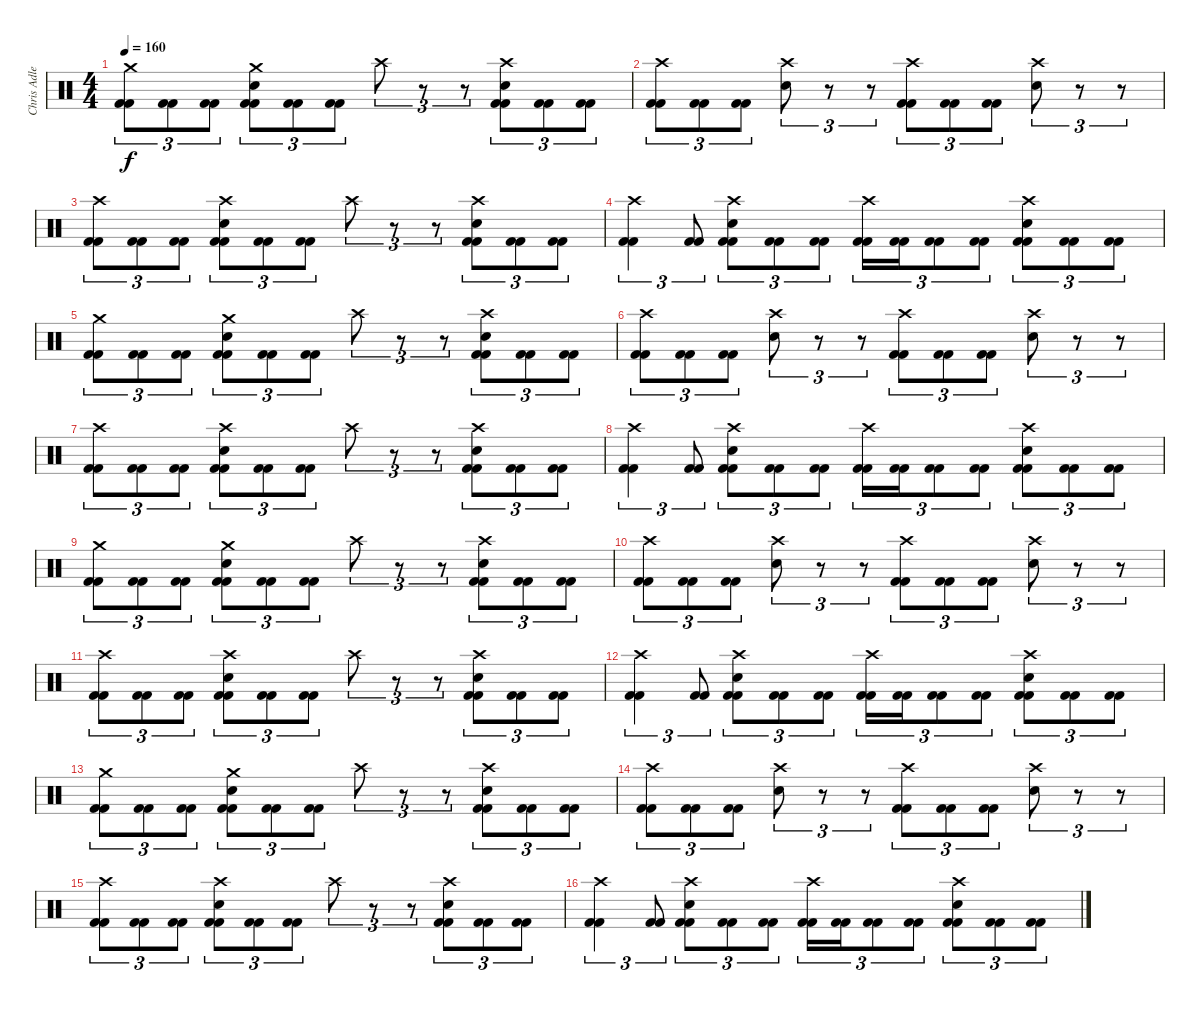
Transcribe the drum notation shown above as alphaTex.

\track ("Chris Adler" "Chris Adle") {instrument percussion}
\staff {score}
\articulation defaults
\ts (4 4)
\tempo 160
\clef neutral
\ks c
("Crash medium (hit)" "Kick (hit) 2" "Kick (hit) 2").8{tu (3 2) dy f} ("Kick (hit) 2" "Kick (hit) 2").8{tu (3 2)} ("Kick (hit) 2" "Kick (hit) 2").8{tu (3 2)} ("Crash medium (hit)" "Kick (hit) 2" "Snare (hit) 2" "Kick (hit) 2").8{tu (3 2)} ("Kick (hit) 2" "Kick (hit) 2").8{tu (3 2)} ("Kick (hit) 2" "Kick (hit) 2").8{tu (3 2)} "Crash high (hit)".8{tu (3 2)} r.8{tu (3 2)} r.8{tu (3 2)} ("Crash high (hit)" "Kick (hit) 2" "Snare (hit) 2" "Kick (hit) 2").8{tu (3 2)} ("Kick (hit) 2" "Kick (hit) 2").8{tu (3 2)} ("Kick (hit) 2" "Kick (hit) 2").8{tu (3 2)} |
("Crash high (hit)" "Kick (hit) 2" "Kick (hit) 2").8{tu (3 2)} ("Kick (hit) 2" "Kick (hit) 2").8{tu (3 2)} ("Kick (hit) 2" "Kick (hit) 2").8{tu (3 2)} ("Crash high (hit)" "Snare (hit) 2").8{tu (3 2)} r.8{tu (3 2)} r.8{tu (3 2)} ("Crash high (hit)" "Kick (hit) 2" "Kick (hit) 2").8{tu (3 2)} ("Kick (hit) 2" "Kick (hit) 2").8{tu (3 2)} ("Kick (hit) 2" "Kick (hit) 2").8{tu (3 2)} ("Crash high (hit)" "Snare (hit) 2").8{tu (3 2)} r.8{tu (3 2)} r.8{tu (3 2)} |
("Crash high (hit)" "Kick (hit) 2" "Kick (hit) 2").8{tu (3 2)} ("Kick (hit) 2" "Kick (hit) 2").8{tu (3 2)} ("Kick (hit) 2" "Kick (hit) 2").8{tu (3 2)} ("Crash high (hit)" "Kick (hit) 2" "Snare (hit) 2" "Kick (hit) 2").8{tu (3 2)} ("Kick (hit) 2" "Kick (hit) 2").8{tu (3 2)} ("Kick (hit) 2" "Kick (hit) 2").8{tu (3 2)} "Crash high (hit)".8{tu (3 2)} r.8{tu (3 2)} r.8{tu (3 2)} ("Crash high (hit)" "Kick (hit) 2" "Snare (hit) 2" "Kick (hit) 2").8{tu (3 2)} ("Kick (hit) 2" "Kick (hit) 2").8{tu (3 2)} ("Kick (hit) 2" "Kick (hit) 2").8{tu (3 2)} |
("Crash high (hit)" "Kick (hit) 2" "Kick (hit) 2").4{tu (3 2)} ("Kick (hit) 2" "Kick (hit) 2").8{tu (3 2)} ("Crash high (hit)" "Kick (hit) 2" "Snare (hit) 2" "Kick (hit) 2").8{tu (3 2)} ("Kick (hit) 2" "Kick (hit) 2").8{tu (3 2)} ("Kick (hit) 2" "Kick (hit) 2").8{tu (3 2)} ("Crash high (hit)" "Kick (hit) 2" "Kick (hit) 2").16{tu (3 2)} ("Kick (hit) 2" "Kick (hit) 2").16{tu (3 2)} ("Kick (hit) 2" "Kick (hit) 2").8{tu (3 2)} ("Kick (hit) 2" "Kick (hit) 2").8{tu (3 2)} ("Crash high (hit)" "Kick (hit) 2" "Snare (hit) 2" "Kick (hit) 2").8{tu (3 2)} ("Kick (hit) 2" "Kick (hit) 2").8{tu (3 2)} ("Kick (hit) 2" "Kick (hit) 2").8{tu (3 2)} |
("Crash medium (hit)" "Kick (hit) 2" "Kick (hit) 2").8{tu (3 2)} ("Kick (hit) 2" "Kick (hit) 2").8{tu (3 2)} ("Kick (hit) 2" "Kick (hit) 2").8{tu (3 2)} ("Crash medium (hit)" "Kick (hit) 2" "Snare (hit) 2" "Kick (hit) 2").8{tu (3 2)} ("Kick (hit) 2" "Kick (hit) 2").8{tu (3 2)} ("Kick (hit) 2" "Kick (hit) 2").8{tu (3 2)} "Crash high (hit)".8{tu (3 2)} r.8{tu (3 2)} r.8{tu (3 2)} ("Crash high (hit)" "Kick (hit) 2" "Snare (hit) 2" "Kick (hit) 2").8{tu (3 2)} ("Kick (hit) 2" "Kick (hit) 2").8{tu (3 2)} ("Kick (hit) 2" "Kick (hit) 2").8{tu (3 2)} |
("Crash high (hit)" "Kick (hit) 2" "Kick (hit) 2").8{tu (3 2)} ("Kick (hit) 2" "Kick (hit) 2").8{tu (3 2)} ("Kick (hit) 2" "Kick (hit) 2").8{tu (3 2)} ("Crash high (hit)" "Snare (hit) 2").8{tu (3 2)} r.8{tu (3 2)} r.8{tu (3 2)} ("Crash high (hit)" "Kick (hit) 2" "Kick (hit) 2").8{tu (3 2)} ("Kick (hit) 2" "Kick (hit) 2").8{tu (3 2)} ("Kick (hit) 2" "Kick (hit) 2").8{tu (3 2)} ("Crash high (hit)" "Snare (hit) 2").8{tu (3 2)} r.8{tu (3 2)} r.8{tu (3 2)} |
("Crash high (hit)" "Kick (hit) 2" "Kick (hit) 2").8{tu (3 2)} ("Kick (hit) 2" "Kick (hit) 2").8{tu (3 2)} ("Kick (hit) 2" "Kick (hit) 2").8{tu (3 2)} ("Crash high (hit)" "Kick (hit) 2" "Snare (hit) 2" "Kick (hit) 2").8{tu (3 2)} ("Kick (hit) 2" "Kick (hit) 2").8{tu (3 2)} ("Kick (hit) 2" "Kick (hit) 2").8{tu (3 2)} "Crash high (hit)".8{tu (3 2)} r.8{tu (3 2)} r.8{tu (3 2)} ("Crash high (hit)" "Kick (hit) 2" "Snare (hit) 2" "Kick (hit) 2").8{tu (3 2)} ("Kick (hit) 2" "Kick (hit) 2").8{tu (3 2)} ("Kick (hit) 2" "Kick (hit) 2").8{tu (3 2)} |
("Crash high (hit)" "Kick (hit) 2" "Kick (hit) 2").4{tu (3 2)} ("Kick (hit) 2" "Kick (hit) 2").8{tu (3 2)} ("Crash high (hit)" "Kick (hit) 2" "Snare (hit) 2" "Kick (hit) 2").8{tu (3 2)} ("Kick (hit) 2" "Kick (hit) 2").8{tu (3 2)} ("Kick (hit) 2" "Kick (hit) 2").8{tu (3 2)} ("Crash high (hit)" "Kick (hit) 2" "Kick (hit) 2").16{tu (3 2)} ("Kick (hit) 2" "Kick (hit) 2").16{tu (3 2)} ("Kick (hit) 2" "Kick (hit) 2").8{tu (3 2)} ("Kick (hit) 2" "Kick (hit) 2").8{tu (3 2)} ("Crash high (hit)" "Kick (hit) 2" "Snare (hit) 2" "Kick (hit) 2").8{tu (3 2)} ("Kick (hit) 2" "Kick (hit) 2").8{tu (3 2)} ("Kick (hit) 2" "Kick (hit) 2").8{tu (3 2)} |
("Crash medium (hit)" "Kick (hit) 2" "Kick (hit) 2").8{tu (3 2)} ("Kick (hit) 2" "Kick (hit) 2").8{tu (3 2)} ("Kick (hit) 2" "Kick (hit) 2").8{tu (3 2)} ("Crash medium (hit)" "Kick (hit) 2" "Snare (hit) 2" "Kick (hit) 2").8{tu (3 2)} ("Kick (hit) 2" "Kick (hit) 2").8{tu (3 2)} ("Kick (hit) 2" "Kick (hit) 2").8{tu (3 2)} "Crash high (hit)".8{tu (3 2)} r.8{tu (3 2)} r.8{tu (3 2)} ("Crash high (hit)" "Kick (hit) 2" "Snare (hit) 2" "Kick (hit) 2").8{tu (3 2)} ("Kick (hit) 2" "Kick (hit) 2").8{tu (3 2)} ("Kick (hit) 2" "Kick (hit) 2").8{tu (3 2)} |
("Crash high (hit)" "Kick (hit) 2" "Kick (hit) 2").8{tu (3 2)} ("Kick (hit) 2" "Kick (hit) 2").8{tu (3 2)} ("Kick (hit) 2" "Kick (hit) 2").8{tu (3 2)} ("Crash high (hit)" "Snare (hit) 2").8{tu (3 2)} r.8{tu (3 2)} r.8{tu (3 2)} ("Crash high (hit)" "Kick (hit) 2" "Kick (hit) 2").8{tu (3 2)} ("Kick (hit) 2" "Kick (hit) 2").8{tu (3 2)} ("Kick (hit) 2" "Kick (hit) 2").8{tu (3 2)} ("Crash high (hit)" "Snare (hit) 2").8{tu (3 2)} r.8{tu (3 2)} r.8{tu (3 2)} |
("Crash high (hit)" "Kick (hit) 2" "Kick (hit) 2").8{tu (3 2)} ("Kick (hit) 2" "Kick (hit) 2").8{tu (3 2)} ("Kick (hit) 2" "Kick (hit) 2").8{tu (3 2)} ("Crash high (hit)" "Kick (hit) 2" "Snare (hit) 2" "Kick (hit) 2").8{tu (3 2)} ("Kick (hit) 2" "Kick (hit) 2").8{tu (3 2)} ("Kick (hit) 2" "Kick (hit) 2").8{tu (3 2)} "Crash high (hit)".8{tu (3 2)} r.8{tu (3 2)} r.8{tu (3 2)} ("Crash high (hit)" "Kick (hit) 2" "Snare (hit) 2" "Kick (hit) 2").8{tu (3 2)} ("Kick (hit) 2" "Kick (hit) 2").8{tu (3 2)} ("Kick (hit) 2" "Kick (hit) 2").8{tu (3 2)} |
("Crash high (hit)" "Kick (hit) 2" "Kick (hit) 2").4{tu (3 2)} ("Kick (hit) 2" "Kick (hit) 2").8{tu (3 2)} ("Crash high (hit)" "Kick (hit) 2" "Snare (hit) 2" "Kick (hit) 2").8{tu (3 2)} ("Kick (hit) 2" "Kick (hit) 2").8{tu (3 2)} ("Kick (hit) 2" "Kick (hit) 2").8{tu (3 2)} ("Crash high (hit)" "Kick (hit) 2" "Kick (hit) 2").16{tu (3 2)} ("Kick (hit) 2" "Kick (hit) 2").16{tu (3 2)} ("Kick (hit) 2" "Kick (hit) 2").8{tu (3 2)} ("Kick (hit) 2" "Kick (hit) 2").8{tu (3 2)} ("Crash high (hit)" "Kick (hit) 2" "Snare (hit) 2" "Kick (hit) 2").8{tu (3 2)} ("Kick (hit) 2" "Kick (hit) 2").8{tu (3 2)} ("Kick (hit) 2" "Kick (hit) 2").8{tu (3 2)} |
("Crash medium (hit)" "Kick (hit) 2" "Kick (hit) 2").8{tu (3 2)} ("Kick (hit) 2" "Kick (hit) 2").8{tu (3 2)} ("Kick (hit) 2" "Kick (hit) 2").8{tu (3 2)} ("Crash medium (hit)" "Kick (hit) 2" "Snare (hit) 2" "Kick (hit) 2").8{tu (3 2)} ("Kick (hit) 2" "Kick (hit) 2").8{tu (3 2)} ("Kick (hit) 2" "Kick (hit) 2").8{tu (3 2)} "Crash high (hit)".8{tu (3 2)} r.8{tu (3 2)} r.8{tu (3 2)} ("Crash high (hit)" "Kick (hit) 2" "Snare (hit) 2" "Kick (hit) 2").8{tu (3 2)} ("Kick (hit) 2" "Kick (hit) 2").8{tu (3 2)} ("Kick (hit) 2" "Kick (hit) 2").8{tu (3 2)} |
("Crash high (hit)" "Kick (hit) 2" "Kick (hit) 2").8{tu (3 2)} ("Kick (hit) 2" "Kick (hit) 2").8{tu (3 2)} ("Kick (hit) 2" "Kick (hit) 2").8{tu (3 2)} ("Crash high (hit)" "Snare (hit) 2").8{tu (3 2)} r.8{tu (3 2)} r.8{tu (3 2)} ("Crash high (hit)" "Kick (hit) 2" "Kick (hit) 2").8{tu (3 2)} ("Kick (hit) 2" "Kick (hit) 2").8{tu (3 2)} ("Kick (hit) 2" "Kick (hit) 2").8{tu (3 2)} ("Crash high (hit)" "Snare (hit) 2").8{tu (3 2)} r.8{tu (3 2)} r.8{tu (3 2)} |
("Crash high (hit)" "Kick (hit) 2" "Kick (hit) 2").8{tu (3 2)} ("Kick (hit) 2" "Kick (hit) 2").8{tu (3 2)} ("Kick (hit) 2" "Kick (hit) 2").8{tu (3 2)} ("Crash high (hit)" "Kick (hit) 2" "Snare (hit) 2" "Kick (hit) 2").8{tu (3 2)} ("Kick (hit) 2" "Kick (hit) 2").8{tu (3 2)} ("Kick (hit) 2" "Kick (hit) 2").8{tu (3 2)} "Crash high (hit)".8{tu (3 2)} r.8{tu (3 2)} r.8{tu (3 2)} ("Crash high (hit)" "Kick (hit) 2" "Snare (hit) 2" "Kick (hit) 2").8{tu (3 2)} ("Kick (hit) 2" "Kick (hit) 2").8{tu (3 2)} ("Kick (hit) 2" "Kick (hit) 2").8{tu (3 2)} |
("Crash high (hit)" "Kick (hit) 2" "Kick (hit) 2").4{tu (3 2)} ("Kick (hit) 2" "Kick (hit) 2").8{tu (3 2)} ("Crash high (hit)" "Kick (hit) 2" "Snare (hit) 2" "Kick (hit) 2").8{tu (3 2)} ("Kick (hit) 2" "Kick (hit) 2").8{tu (3 2)} ("Kick (hit) 2" "Kick (hit) 2").8{tu (3 2)} ("Crash high (hit)" "Kick (hit) 2" "Kick (hit) 2").16{tu (3 2)} ("Kick (hit) 2" "Kick (hit) 2").16{tu (3 2)} ("Kick (hit) 2" "Kick (hit) 2").8{tu (3 2)} ("Kick (hit) 2" "Kick (hit) 2").8{tu (3 2)} ("Crash high (hit)" "Kick (hit) 2" "Snare (hit) 2" "Kick (hit) 2").8{tu (3 2)} ("Kick (hit) 2" "Kick (hit) 2").8{tu (3 2)} ("Kick (hit) 2" "Kick (hit) 2").8{tu (3 2)}
